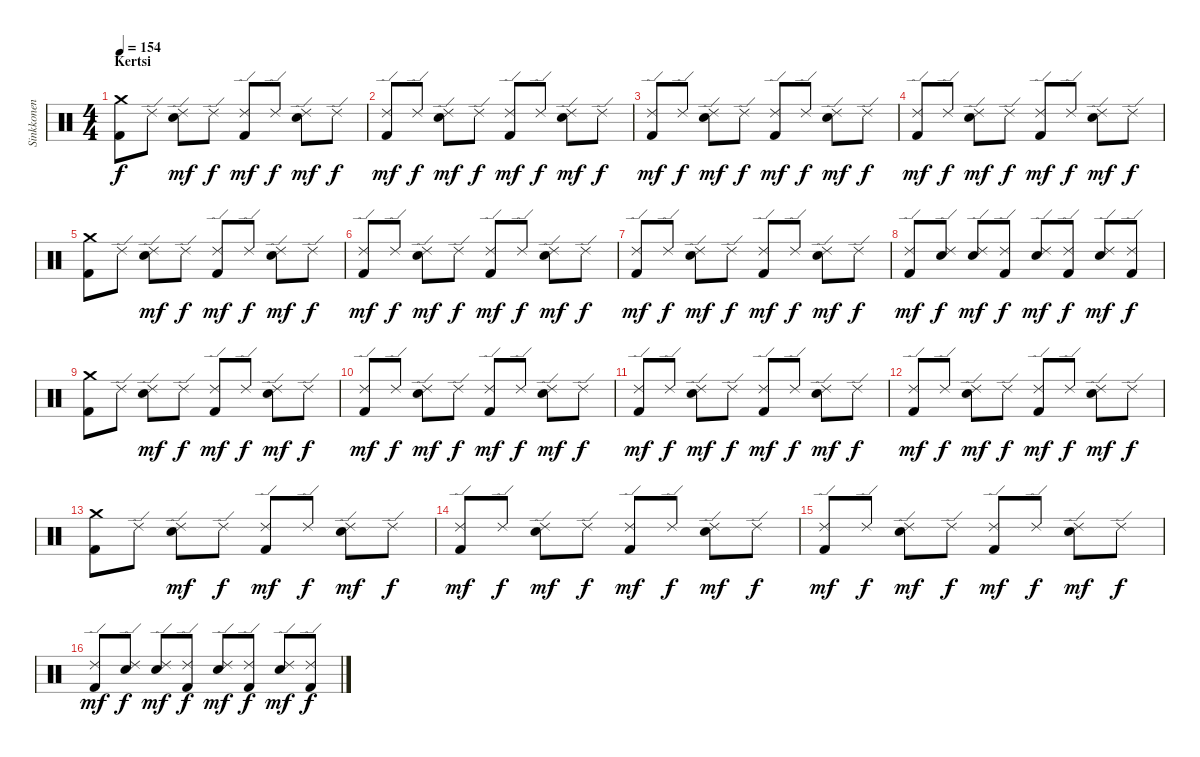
\track ("Sinkkonen" "Sinkkonen") {instrument percussion}
\staff {score}
\articulation defaults
\ts (4 4)
\section ("" "Kertsi")
\tempo 154
\clef neutral
\ks c
("Kick (hit) 2" "Crash medium (hit)").8{dy f} "Ride (edge) 2".8 ("Ride (edge) 2" "Snare (hit) 2").8{dy mf} "Ride (edge) 2".8{dy f} ("Kick (hit) 2" "Ride (edge) 2").8{dy mf} "Ride (edge) 2".8{dy f} ("Ride (edge) 2" "Snare (hit) 2").8{dy mf} "Ride (edge) 2".8{dy f} |
("Kick (hit) 2" "Ride (edge) 2").8{dy mf} "Ride (edge) 2".8{dy f} ("Ride (edge) 2" "Snare (hit) 2").8{dy mf} "Ride (edge) 2".8{dy f} ("Kick (hit) 2" "Ride (edge) 2").8{dy mf} "Ride (edge) 2".8{dy f} ("Ride (edge) 2" "Snare (hit) 2").8{dy mf} "Ride (edge) 2".8{dy f} |
("Kick (hit) 2" "Ride (edge) 2").8{dy mf} "Ride (edge) 2".8{dy f} ("Ride (edge) 2" "Snare (hit) 2").8{dy mf} "Ride (edge) 2".8{dy f} ("Kick (hit) 2" "Ride (edge) 2").8{dy mf} "Ride (edge) 2".8{dy f} ("Ride (edge) 2" "Snare (hit) 2").8{dy mf} "Ride (edge) 2".8{dy f} |
("Kick (hit) 2" "Ride (edge) 2").8{dy mf} "Ride (edge) 2".8{dy f} ("Ride (edge) 2" "Snare (hit) 2").8{dy mf} "Ride (edge) 2".8{dy f} ("Kick (hit) 2" "Ride (edge) 2").8{dy mf} "Ride (edge) 2".8{dy f} ("Ride (edge) 2" "Snare (hit) 2").8{dy mf} "Ride (edge) 2".8{dy f} |
("Kick (hit) 2" "Crash medium (hit)").8 "Ride (edge) 2".8 ("Ride (edge) 2" "Snare (hit) 2").8{dy mf} "Ride (edge) 2".8{dy f} ("Kick (hit) 2" "Ride (edge) 2").8{dy mf} "Ride (edge) 2".8{dy f} ("Ride (edge) 2" "Snare (hit) 2").8{dy mf} "Ride (edge) 2".8{dy f} |
("Kick (hit) 2" "Ride (edge) 2").8{dy mf} "Ride (edge) 2".8{dy f} ("Ride (edge) 2" "Snare (hit) 2").8{dy mf} "Ride (edge) 2".8{dy f} ("Kick (hit) 2" "Ride (edge) 2").8{dy mf} "Ride (edge) 2".8{dy f} ("Ride (edge) 2" "Snare (hit) 2").8{dy mf} "Ride (edge) 2".8{dy f} |
("Kick (hit) 2" "Ride (edge) 2").8{dy mf} "Ride (edge) 2".8{dy f} ("Ride (edge) 2" "Snare (hit) 2").8{dy mf} "Ride (edge) 2".8{dy f} ("Kick (hit) 2" "Ride (edge) 2").8{dy mf} "Ride (edge) 2".8{dy f} ("Ride (edge) 2" "Snare (hit) 2").8{dy mf} "Ride (edge) 2".8{dy f} |
("Kick (hit) 2" "Ride (edge) 2").8{dy mf} ("Ride (edge) 2" "Snare (hit) 2").8{dy f} ("Ride (edge) 2" "Snare (hit) 2").8{dy mf} ("Kick (hit) 2" "Ride (edge) 2").8{dy f} ("Ride (edge) 2" "Snare (hit) 2").8{dy mf} ("Kick (hit) 2" "Ride (edge) 2").8{dy f} ("Ride (edge) 2" "Snare (hit) 2").8{dy mf} ("Kick (hit) 2" "Ride (edge) 2").8{dy f} |
("Kick (hit) 2" "Crash medium (hit)").8 "Ride (edge) 2".8 ("Ride (edge) 2" "Snare (hit) 2").8{dy mf} "Ride (edge) 2".8{dy f} ("Kick (hit) 2" "Ride (edge) 2").8{dy mf} "Ride (edge) 2".8{dy f} ("Ride (edge) 2" "Snare (hit) 2").8{dy mf} "Ride (edge) 2".8{dy f} |
("Kick (hit) 2" "Ride (edge) 2").8{dy mf} "Ride (edge) 2".8{dy f} ("Ride (edge) 2" "Snare (hit) 2").8{dy mf} "Ride (edge) 2".8{dy f} ("Kick (hit) 2" "Ride (edge) 2").8{dy mf} "Ride (edge) 2".8{dy f} ("Ride (edge) 2" "Snare (hit) 2").8{dy mf} "Ride (edge) 2".8{dy f} |
("Kick (hit) 2" "Ride (edge) 2").8{dy mf} "Ride (edge) 2".8{dy f} ("Ride (edge) 2" "Snare (hit) 2").8{dy mf} "Ride (edge) 2".8{dy f} ("Kick (hit) 2" "Ride (edge) 2").8{dy mf} "Ride (edge) 2".8{dy f} ("Ride (edge) 2" "Snare (hit) 2").8{dy mf} "Ride (edge) 2".8{dy f} |
("Kick (hit) 2" "Ride (edge) 2").8{dy mf} "Ride (edge) 2".8{dy f} ("Ride (edge) 2" "Snare (hit) 2").8{dy mf} "Ride (edge) 2".8{dy f} ("Kick (hit) 2" "Ride (edge) 2").8{dy mf} "Ride (edge) 2".8{dy f} ("Ride (edge) 2" "Snare (hit) 2").8{dy mf} "Ride (edge) 2".8{dy f} |
("Kick (hit) 2" "Crash medium (hit)").8 "Ride (edge) 2".8 ("Ride (edge) 2" "Snare (hit) 2").8{dy mf} "Ride (edge) 2".8{dy f} ("Kick (hit) 2" "Ride (edge) 2").8{dy mf} "Ride (edge) 2".8{dy f} ("Ride (edge) 2" "Snare (hit) 2").8{dy mf} "Ride (edge) 2".8{dy f} |
("Kick (hit) 2" "Ride (edge) 2").8{dy mf} "Ride (edge) 2".8{dy f} ("Ride (edge) 2" "Snare (hit) 2").8{dy mf} "Ride (edge) 2".8{dy f} ("Kick (hit) 2" "Ride (edge) 2").8{dy mf} "Ride (edge) 2".8{dy f} ("Ride (edge) 2" "Snare (hit) 2").8{dy mf} "Ride (edge) 2".8{dy f} |
("Kick (hit) 2" "Ride (edge) 2").8{dy mf} "Ride (edge) 2".8{dy f} ("Ride (edge) 2" "Snare (hit) 2").8{dy mf} "Ride (edge) 2".8{dy f} ("Kick (hit) 2" "Ride (edge) 2").8{dy mf} "Ride (edge) 2".8{dy f} ("Ride (edge) 2" "Snare (hit) 2").8{dy mf} "Ride (edge) 2".8{dy f} |
("Kick (hit) 2" "Ride (edge) 2").8{dy mf} ("Ride (edge) 2" "Snare (hit) 2").8{dy f} ("Ride (edge) 2" "Snare (hit) 2").8{dy mf} ("Kick (hit) 2" "Ride (edge) 2").8{dy f} ("Ride (edge) 2" "Snare (hit) 2").8{dy mf} ("Kick (hit) 2" "Ride (edge) 2").8{dy f} ("Ride (edge) 2" "Snare (hit) 2").8{dy mf} ("Kick (hit) 2" "Ride (edge) 2").8{dy f}
